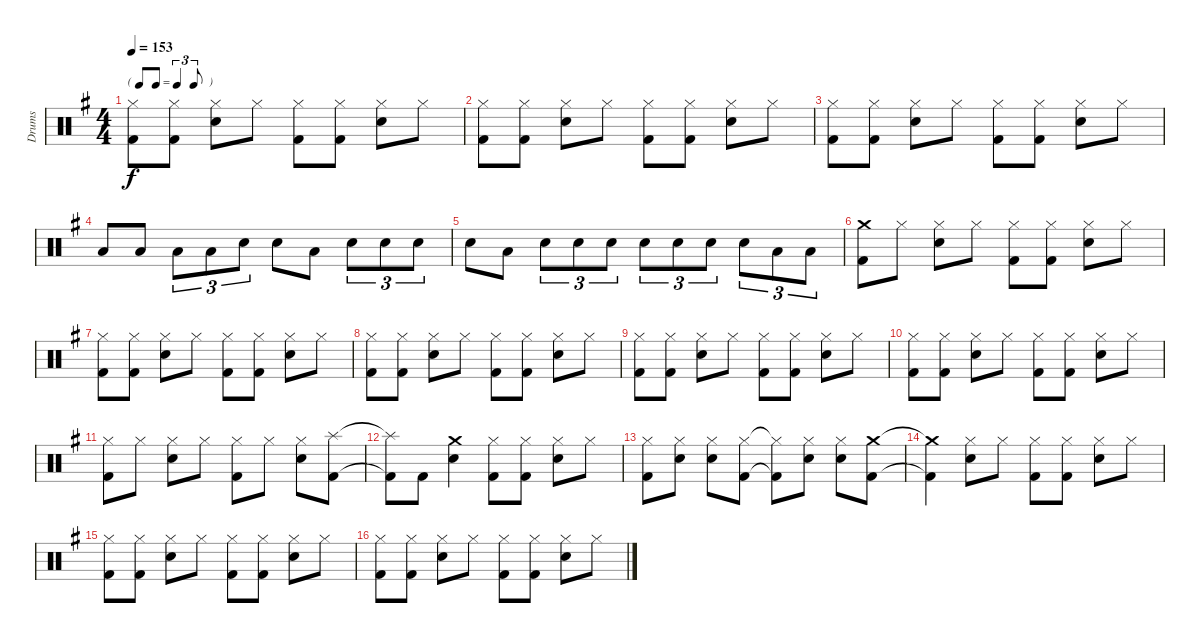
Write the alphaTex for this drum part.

\track ("Drums" "Drums") {instrument percussion}
\staff {score}
\articulation defaults
\ts (4 4)
\tf triplet8th
\tempo 153
\clef neutral
\ks g
("Hi-Hat (closed)" "Kick (hit) 2").8{dy f} ("Hi-Hat (closed)" "Kick (hit) 2").8 ("Hi-Hat (closed)" "Electric Snare (hit)").8 "Hi-Hat (closed)".8 ("Hi-Hat (closed)" "Kick (hit) 2").8 ("Hi-Hat (closed)" "Kick (hit) 2").8 ("Hi-Hat (closed)" "Electric Snare (hit)").8 "Hi-Hat (closed)".8 |
("Hi-Hat (closed)" "Kick (hit) 2").8 ("Hi-Hat (closed)" "Kick (hit) 2").8 ("Hi-Hat (closed)" "Electric Snare (hit)").8 "Hi-Hat (closed)".8 ("Hi-Hat (closed)" "Kick (hit) 2").8 ("Hi-Hat (closed)" "Kick (hit) 2").8 ("Hi-Hat (closed)" "Electric Snare (hit)").8 "Hi-Hat (closed)".8 |
("Hi-Hat (closed)" "Kick (hit) 2").8 ("Hi-Hat (closed)" "Kick (hit) 2").8 ("Hi-Hat (closed)" "Electric Snare (hit)").8 "Hi-Hat (closed)".8 ("Hi-Hat (closed)" "Kick (hit) 2").8 ("Hi-Hat (closed)" "Kick (hit) 2").8 ("Hi-Hat (closed)" "Electric Snare (hit)").8 "Hi-Hat (closed)".8 |
"Low Tom (hit)".8 "Low Tom (hit)".8 "Low Tom (hit)".8{tu (3 2)} "Low Tom (hit)".8{tu (3 2)} "Electric Snare (hit)".8{tu (3 2)} "Electric Snare (hit)".8 "Low Tom (hit)".8 "Electric Snare (hit)".8{tu (3 2)} "Electric Snare (hit)".8{tu (3 2)} "Electric Snare (hit)".8{tu (3 2)} |
"Electric Snare (hit)".8 "Low Tom (hit)".8 "Electric Snare (hit)".8{tu (3 2)} "Electric Snare (hit)".8{tu (3 2)} "Electric Snare (hit)".8{tu (3 2)} "Electric Snare (hit)".8{tu (3 2)} "Electric Snare (hit)".8{tu (3 2)} "Electric Snare (hit)".8{tu (3 2)} "Electric Snare (hit)".8{tu (3 2)} "Low Tom (hit)".8{tu (3 2)} "Low Tom (hit)".8{tu (3 2)} |
("Crash medium (hit)" "Kick (hit) 2").8 "Hi-Hat (closed)".8 ("Hi-Hat (closed)" "Electric Snare (hit)").8 "Hi-Hat (closed)".8 ("Hi-Hat (closed)" "Kick (hit) 2").8 ("Hi-Hat (closed)" "Kick (hit) 2").8 ("Hi-Hat (closed)" "Electric Snare (hit)").8 "Hi-Hat (closed)".8 |
("Hi-Hat (closed)" "Kick (hit) 2").8 ("Hi-Hat (closed)" "Kick (hit) 2").8 ("Hi-Hat (closed)" "Electric Snare (hit)").8 "Hi-Hat (closed)".8 ("Hi-Hat (closed)" "Kick (hit) 2").8 ("Hi-Hat (closed)" "Kick (hit) 2").8 ("Hi-Hat (closed)" "Electric Snare (hit)").8 "Hi-Hat (closed)".8 |
("Hi-Hat (closed)" "Kick (hit) 2").8 ("Hi-Hat (closed)" "Kick (hit) 2").8 ("Hi-Hat (closed)" "Electric Snare (hit)").8 "Hi-Hat (closed)".8 ("Hi-Hat (closed)" "Kick (hit) 2").8 ("Hi-Hat (closed)" "Kick (hit) 2").8 ("Hi-Hat (closed)" "Electric Snare (hit)").8 "Hi-Hat (closed)".8 |
("Hi-Hat (closed)" "Kick (hit) 2").8 ("Hi-Hat (closed)" "Kick (hit) 2").8 ("Hi-Hat (closed)" "Electric Snare (hit)").8 "Hi-Hat (closed)".8 ("Hi-Hat (closed)" "Kick (hit) 2").8 ("Hi-Hat (closed)" "Kick (hit) 2").8 ("Hi-Hat (closed)" "Electric Snare (hit)").8 "Hi-Hat (closed)".8 |
("Hi-Hat (closed)" "Kick (hit) 2").8 ("Hi-Hat (closed)" "Kick (hit) 2").8 ("Hi-Hat (closed)" "Electric Snare (hit)").8 "Hi-Hat (closed)".8 ("Hi-Hat (closed)" "Kick (hit) 2").8 ("Hi-Hat (closed)" "Kick (hit) 2").8 ("Hi-Hat (closed)" "Electric Snare (hit)").8 "Hi-Hat (closed)".8 |
("Hi-Hat (closed)" "Kick (hit) 2").8 "Hi-Hat (closed)".8 ("Hi-Hat (closed)" "Electric Snare (hit)").8 "Hi-Hat (closed)".8 ("Hi-Hat (closed)" "Kick (hit) 2").8 "Hi-Hat (closed)".8 ("Hi-Hat (closed)" "Electric Snare (hit)").8 ("Splash (hit)" "Kick (hit) 2").8 |
("Splash (hit)"{t} "Kick (hit) 2"{t}).8 "Kick (hit) 2".8 ("Crash medium (hit)" "Electric Snare (hit)").4 ("Hi-Hat (closed)" "Kick (hit) 2").8 ("Hi-Hat (closed)" "Kick (hit) 2").8 ("Hi-Hat (closed)" "Electric Snare (hit)").8 "Hi-Hat (closed)".8 |
("Hi-Hat (closed)" "Kick (hit) 2").8 ("Hi-Hat (closed)" "Electric Snare (hit)").8 ("Hi-Hat (closed)" "Electric Snare (hit)").8 ("Hi-Hat (closed)" "Kick (hit) 2").8 ("Hi-Hat (closed)"{t} "Kick (hit) 2"{t}).8 ("Hi-Hat (closed)" "Electric Snare (hit)").8 ("Hi-Hat (closed)" "Electric Snare (hit)").8 ("Crash medium (hit)" "Kick (hit) 2").8 |
("Crash medium (hit)"{t} "Kick (hit) 2"{t}).4 ("Hi-Hat (closed)" "Electric Snare (hit)").8 "Hi-Hat (closed)".8 ("Hi-Hat (closed)" "Kick (hit) 2").8 ("Hi-Hat (closed)" "Kick (hit) 2").8 ("Hi-Hat (closed)" "Electric Snare (hit)").8 "Hi-Hat (closed)".8 |
("Hi-Hat (closed)" "Kick (hit) 2").8 ("Hi-Hat (closed)" "Kick (hit) 2").8 ("Hi-Hat (closed)" "Electric Snare (hit)").8 "Hi-Hat (closed)".8 ("Hi-Hat (closed)" "Kick (hit) 2").8 ("Hi-Hat (closed)" "Kick (hit) 2").8 ("Hi-Hat (closed)" "Electric Snare (hit)").8 "Hi-Hat (closed)".8 |
("Hi-Hat (closed)" "Kick (hit) 2").8 ("Hi-Hat (closed)" "Kick (hit) 2").8 ("Hi-Hat (closed)" "Electric Snare (hit)").8 "Hi-Hat (closed)".8 ("Hi-Hat (closed)" "Kick (hit) 2").8 ("Hi-Hat (closed)" "Kick (hit) 2").8 ("Hi-Hat (closed)" "Electric Snare (hit)").8 "Hi-Hat (closed)".8
